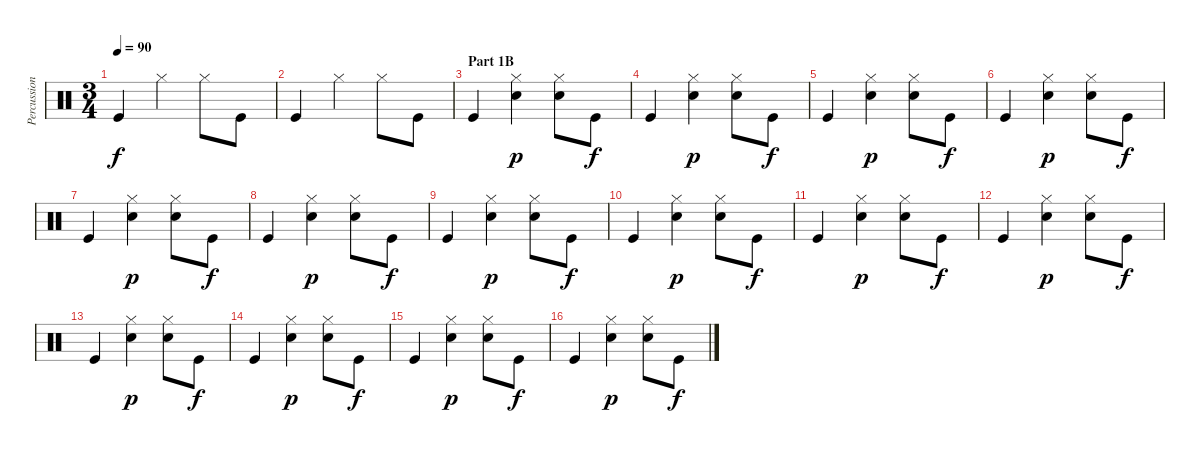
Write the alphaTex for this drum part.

\track ("Percussion" "Percussion") {instrument percussion}
\staff {score}
\articulation defaults
\ts (3 4)
\tempo 90
\clef neutral
\ks c "Kick (hit)".4{dy f} "Hi-Hat (closed)".4 "Hi-Hat (closed)".8 "Kick (hit)".8
|
"Kick (hit)".4 "Hi-Hat (closed)".4 "Hi-Hat (closed)".8 "Kick (hit)".8 |
\section ("" "Part 1B")
"Kick (hit)".4 ("Hi-Hat (closed)" "Electric Snare (hit)").4{dy p} ("Hi-Hat (closed)" "Electric Snare (hit)").8 "Kick (hit)".8{dy f} |
"Kick (hit)".4 ("Hi-Hat (closed)" "Electric Snare (hit)").4{dy p} ("Hi-Hat (closed)" "Electric Snare (hit)").8 "Kick (hit)".8{dy f} |
"Kick (hit)".4 ("Hi-Hat (closed)" "Electric Snare (hit)").4{dy p} ("Hi-Hat (closed)" "Electric Snare (hit)").8 "Kick (hit)".8{dy f} |
"Kick (hit)".4 ("Hi-Hat (closed)" "Electric Snare (hit)").4{dy p} ("Hi-Hat (closed)" "Electric Snare (hit)").8 "Kick (hit)".8{dy f} |
"Kick (hit)".4 ("Hi-Hat (closed)" "Electric Snare (hit)").4{dy p} ("Hi-Hat (closed)" "Electric Snare (hit)").8 "Kick (hit)".8{dy f} |
"Kick (hit)".4 ("Hi-Hat (closed)" "Electric Snare (hit)").4{dy p} ("Hi-Hat (closed)" "Electric Snare (hit)").8 "Kick (hit)".8{dy f} |
"Kick (hit)".4 ("Hi-Hat (closed)" "Electric Snare (hit)").4{dy p} ("Hi-Hat (closed)" "Electric Snare (hit)").8 "Kick (hit)".8{dy f} |
"Kick (hit)".4 ("Hi-Hat (closed)" "Electric Snare (hit)").4{dy p} ("Hi-Hat (closed)" "Electric Snare (hit)").8 "Kick (hit)".8{dy f} |
"Kick (hit)".4 ("Hi-Hat (closed)" "Electric Snare (hit)").4{dy p} ("Hi-Hat (closed)" "Electric Snare (hit)").8 "Kick (hit)".8{dy f} |
"Kick (hit)".4 ("Hi-Hat (closed)" "Electric Snare (hit)").4{dy p} ("Hi-Hat (closed)" "Electric Snare (hit)").8 "Kick (hit)".8{dy f} |
"Kick (hit)".4 ("Hi-Hat (closed)" "Electric Snare (hit)").4{dy p} ("Hi-Hat (closed)" "Electric Snare (hit)").8 "Kick (hit)".8{dy f} |
"Kick (hit)".4 ("Hi-Hat (closed)" "Electric Snare (hit)").4{dy p} ("Hi-Hat (closed)" "Electric Snare (hit)").8 "Kick (hit)".8{dy f} |
"Kick (hit)".4 ("Hi-Hat (closed)" "Electric Snare (hit)").4{dy p} ("Hi-Hat (closed)" "Electric Snare (hit)").8 "Kick (hit)".8{dy f} |
"Kick (hit)".4 ("Hi-Hat (closed)" "Electric Snare (hit)").4{dy p} ("Hi-Hat (closed)" "Electric Snare (hit)").8 "Kick (hit)".8{dy f}
